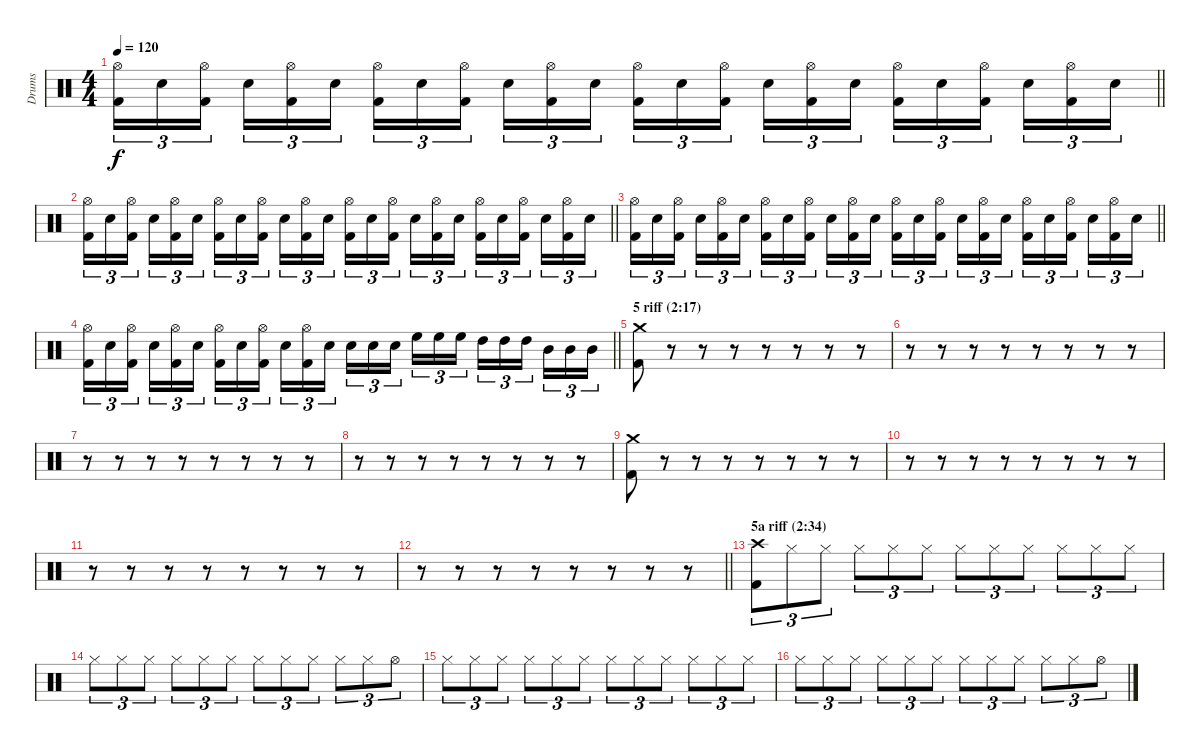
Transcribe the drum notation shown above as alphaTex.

\track ("Drums" "Drums") {instrument percussion}
\staff {score}
\articulation defaults
\ts (4 4)
\tempo 120
\clef neutral
\barLineRight lightlight
\ks c
("Hi-Hat (open)" "Kick (hit) 2").16{tu (3 2) dy f} "Snare (hit) 2".16{tu (3 2)} ("Hi-Hat (open)" "Kick (hit) 2").16{tu (3 2) beam splitsecondary} "Snare (hit) 2".16{tu (3 2)} ("Hi-Hat (open)" "Kick (hit) 2").16{tu (3 2)} "Snare (hit) 2".16{tu (3 2)} ("Hi-Hat (open)" "Kick (hit) 2").16{tu (3 2)} "Snare (hit) 2".16{tu (3 2)} ("Hi-Hat (open)" "Kick (hit) 2").16{tu (3 2) beam splitsecondary} "Snare (hit) 2".16{tu (3 2)} ("Hi-Hat (open)" "Kick (hit) 2").16{tu (3 2)} "Snare (hit) 2".16{tu (3 2)} ("Hi-Hat (open)" "Kick (hit) 2").16{tu (3 2)} "Snare (hit) 2".16{tu (3 2)} ("Hi-Hat (open)" "Kick (hit) 2").16{tu (3 2) beam splitsecondary} "Snare (hit) 2".16{tu (3 2)} ("Hi-Hat (open)" "Kick (hit) 2").16{tu (3 2)} "Snare (hit) 2".16{tu (3 2)} ("Hi-Hat (open)" "Kick (hit) 2").16{tu (3 2)} "Snare (hit) 2".16{tu (3 2)} ("Hi-Hat (open)" "Kick (hit) 2").16{tu (3 2) beam splitsecondary} "Snare (hit) 2".16{tu (3 2)} ("Hi-Hat (open)" "Kick (hit) 2").16{tu (3 2)} "Snare (hit) 2".16{tu (3 2)} |
\barLineRight lightlight
("Hi-Hat (open)" "Kick (hit) 2").16{tu (3 2)} "Snare (hit) 2".16{tu (3 2)} ("Hi-Hat (open)" "Kick (hit) 2").16{tu (3 2) beam splitsecondary} "Snare (hit) 2".16{tu (3 2)} ("Hi-Hat (open)" "Kick (hit) 2").16{tu (3 2)} "Snare (hit) 2".16{tu (3 2)} ("Hi-Hat (open)" "Kick (hit) 2").16{tu (3 2)} "Snare (hit) 2".16{tu (3 2)} ("Hi-Hat (open)" "Kick (hit) 2").16{tu (3 2) beam splitsecondary} "Snare (hit) 2".16{tu (3 2)} ("Hi-Hat (open)" "Kick (hit) 2").16{tu (3 2)} "Snare (hit) 2".16{tu (3 2)} ("Hi-Hat (open)" "Kick (hit) 2").16{tu (3 2)} "Snare (hit) 2".16{tu (3 2)} ("Hi-Hat (open)" "Kick (hit) 2").16{tu (3 2) beam splitsecondary} "Snare (hit) 2".16{tu (3 2)} ("Hi-Hat (open)" "Kick (hit) 2").16{tu (3 2)} "Snare (hit) 2".16{tu (3 2)} ("Hi-Hat (open)" "Kick (hit) 2").16{tu (3 2)} "Snare (hit) 2".16{tu (3 2)} ("Hi-Hat (open)" "Kick (hit) 2").16{tu (3 2) beam splitsecondary} "Snare (hit) 2".16{tu (3 2)} ("Hi-Hat (open)" "Kick (hit) 2").16{tu (3 2)} "Snare (hit) 2".16{tu (3 2)} |
\barLineRight lightlight
("Hi-Hat (open)" "Kick (hit) 2").16{tu (3 2)} "Snare (hit) 2".16{tu (3 2)} ("Hi-Hat (open)" "Kick (hit) 2").16{tu (3 2) beam splitsecondary} "Snare (hit) 2".16{tu (3 2)} ("Hi-Hat (open)" "Kick (hit) 2").16{tu (3 2)} "Snare (hit) 2".16{tu (3 2)} ("Hi-Hat (open)" "Kick (hit) 2").16{tu (3 2)} "Snare (hit) 2".16{tu (3 2)} ("Hi-Hat (open)" "Kick (hit) 2").16{tu (3 2) beam splitsecondary} "Snare (hit) 2".16{tu (3 2)} ("Hi-Hat (open)" "Kick (hit) 2").16{tu (3 2)} "Snare (hit) 2".16{tu (3 2)} ("Hi-Hat (open)" "Kick (hit) 2").16{tu (3 2)} "Snare (hit) 2".16{tu (3 2)} ("Hi-Hat (open)" "Kick (hit) 2").16{tu (3 2) beam splitsecondary} "Snare (hit) 2".16{tu (3 2)} ("Hi-Hat (open)" "Kick (hit) 2").16{tu (3 2)} "Snare (hit) 2".16{tu (3 2)} ("Hi-Hat (open)" "Kick (hit) 2").16{tu (3 2)} "Snare (hit) 2".16{tu (3 2)} ("Hi-Hat (open)" "Kick (hit) 2").16{tu (3 2) beam splitsecondary} "Snare (hit) 2".16{tu (3 2)} ("Hi-Hat (open)" "Kick (hit) 2").16{tu (3 2)} "Snare (hit) 2".16{tu (3 2)} |
\barLineRight lightlight
("Hi-Hat (open)" "Kick (hit) 2").16{tu (3 2)} "Snare (hit) 2".16{tu (3 2)} ("Hi-Hat (open)" "Kick (hit) 2").16{tu (3 2) beam splitsecondary} "Snare (hit) 2".16{tu (3 2)} ("Hi-Hat (open)" "Kick (hit) 2").16{tu (3 2)} "Snare (hit) 2".16{tu (3 2)} ("Hi-Hat (open)" "Kick (hit) 2").16{tu (3 2)} "Snare (hit) 2".16{tu (3 2)} ("Hi-Hat (open)" "Kick (hit) 2").16{tu (3 2) beam splitsecondary} "Snare (hit) 2".16{tu (3 2)} ("Hi-Hat (open)" "Kick (hit) 2").16{tu (3 2)} "Snare (hit) 2".16{tu (3 2)} "Snare (hit) 2".16{tu (3 2)} "Snare (hit) 2".16{tu (3 2)} "Snare (hit) 2".16{tu (3 2) beam splitsecondary} "High Floor Tom (hit)".16{tu (3 2)} "High Floor Tom (hit)".16{tu (3 2)} "High Floor Tom (hit)".16{tu (3 2)} "High Tom (hit)".16{tu (3 2)} "High Tom (hit)".16{tu (3 2)} "High Tom (hit)".16{tu (3 2) beam splitsecondary} "Mid Tom (hit)".16{tu (3 2)} "Mid Tom (hit)".16{tu (3 2)} "Mid Tom (hit)".16{tu (3 2)} |
\section ("" "5 riff (2:17)")
("Crash medium (hit)" "Kick (hit) 2").8 r.8 r.8 r.8 r.8 r.8 r.8 r.8 |
r.8 r.8 r.8 r.8 r.8 r.8 r.8 r.8 |
r.8 r.8 r.8 r.8 r.8 r.8 r.8 r.8 |
r.8 r.8 r.8 r.8 r.8 r.8 r.8 r.8 |
("Crash medium (hit)" "Kick (hit) 2").8 r.8 r.8 r.8 r.8 r.8 r.8 r.8 |
r.8 r.8 r.8 r.8 r.8 r.8 r.8 r.8 |
r.8 r.8 r.8 r.8 r.8 r.8 r.8 r.8 |
\barLineRight lightlight
r.8 r.8 r.8 r.8 r.8 r.8 r.8 r.8 |
\section ("" "5a riff (2:34)")
("Crash high (hit)" "Kick (hit) 2").8{tu (3 2)} "Hi-Hat (closed)".8{tu (3 2)} "Hi-Hat (closed)".8{tu (3 2)} "Hi-Hat (closed)".8{tu (3 2)} "Hi-Hat (closed)".8{tu (3 2)} "Hi-Hat (closed)".8{tu (3 2)} "Hi-Hat (closed)".8{tu (3 2)} "Hi-Hat (closed)".8{tu (3 2)} "Hi-Hat (closed)".8{tu (3 2)} "Hi-Hat (closed)".8{tu (3 2)} "Hi-Hat (closed)".8{tu (3 2)} "Hi-Hat (closed)".8{tu (3 2)} |
"Hi-Hat (closed)".8{tu (3 2)} "Hi-Hat (closed)".8{tu (3 2)} "Hi-Hat (closed)".8{tu (3 2)} "Hi-Hat (closed)".8{tu (3 2)} "Hi-Hat (closed)".8{tu (3 2)} "Hi-Hat (closed)".8{tu (3 2)} "Hi-Hat (closed)".8{tu (3 2)} "Hi-Hat (closed)".8{tu (3 2)} "Hi-Hat (closed)".8{tu (3 2)} "Hi-Hat (closed)".8{tu (3 2)} "Hi-Hat (closed)".8{tu (3 2)} "Hi-Hat (open)".8{tu (3 2)} |
"Hi-Hat (closed)".8{tu (3 2)} "Hi-Hat (closed)".8{tu (3 2)} "Hi-Hat (closed)".8{tu (3 2)} "Hi-Hat (closed)".8{tu (3 2)} "Hi-Hat (closed)".8{tu (3 2)} "Hi-Hat (closed)".8{tu (3 2)} "Hi-Hat (closed)".8{tu (3 2)} "Hi-Hat (closed)".8{tu (3 2)} "Hi-Hat (closed)".8{tu (3 2)} "Hi-Hat (closed)".8{tu (3 2)} "Hi-Hat (closed)".8{tu (3 2)} "Hi-Hat (closed)".8{tu (3 2)} |
"Hi-Hat (closed)".8{tu (3 2)} "Hi-Hat (closed)".8{tu (3 2)} "Hi-Hat (closed)".8{tu (3 2)} "Hi-Hat (closed)".8{tu (3 2)} "Hi-Hat (closed)".8{tu (3 2)} "Hi-Hat (closed)".8{tu (3 2)} "Hi-Hat (closed)".8{tu (3 2)} "Hi-Hat (closed)".8{tu (3 2)} "Hi-Hat (closed)".8{tu (3 2)} "Hi-Hat (closed)".8{tu (3 2)} "Hi-Hat (closed)".8{tu (3 2)} "Hi-Hat (open)".8{tu (3 2)}
